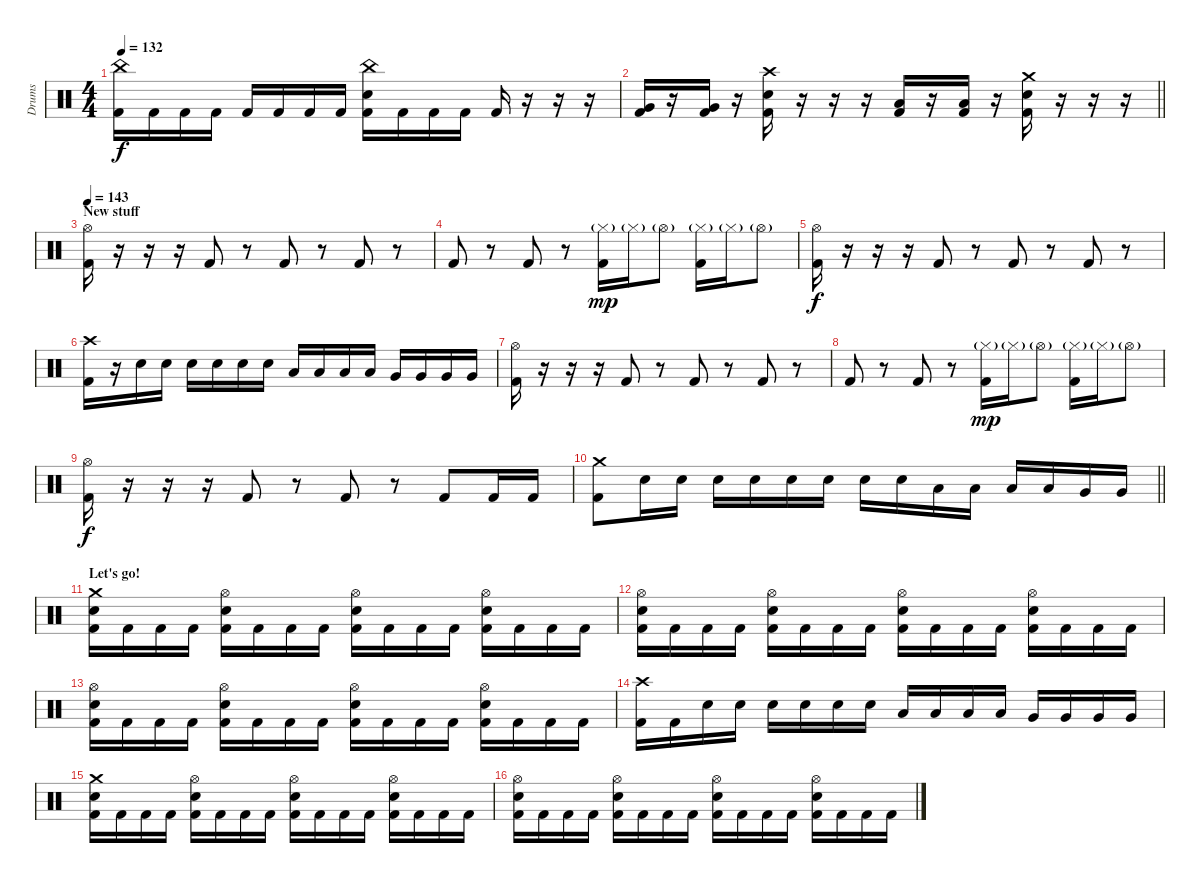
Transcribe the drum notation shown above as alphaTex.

\track ("Drums" "Drums") {instrument percussion}
\staff {score}
\articulation defaults
\ts (4 4)
\tempo 132
\clef neutral
\ks c
("China (hit)" "Kick (hit) 2").16{dy f} "Kick (hit) 2".16 "Kick (hit) 2".16 "Kick (hit) 2".16 "Kick (hit) 2".16 "Kick (hit) 2".16 "Kick (hit) 2".16 "Kick (hit) 2".16 ("China (hit)" "Electric Snare (hit)" "Kick (hit) 2").16 "Kick (hit) 2".16 "Kick (hit) 2".16 "Kick (hit) 2".16 "Kick (hit) 2".16 r.16 r.16 r.16 |
\barLineRight lightlight
("Very Low Tom (hit)" "Kick (hit) 2").16 r.16 ("Very Low Tom (hit)" "Kick (hit) 2").16 r.16 ("Crash high (hit)" "Electric Snare (hit)" "Kick (hit) 2").16 r.16 r.16 r.16 ("Low Floor Tom (hit)" "Kick (hit) 2").16 r.16 ("Low Floor Tom (hit)" "Kick (hit) 2").16 r.16 ("Crash medium (hit)" "Electric Snare (hit)" "Kick (hit) 2").16 r.16 r.16 r.16 |
\section ("" "New stuff")
\tempo 143
("Hi-Hat (open)" "Kick (hit) 2").16 r.16 r.16 r.16 "Kick (hit) 2".8 r.8 "Kick (hit) 2".8 r.8 "Kick (hit) 2".8 r.8 |
"Kick (hit) 2".8 r.8 "Kick (hit) 2".8 r.8 ("Hi-Hat (closed)"{g} "Kick (hit) 2").16{dy mp} "Hi-Hat (closed)"{g}.16 "Hi-Hat (open)"{g}.8 ("Hi-Hat (closed)"{g} "Kick (hit) 2").16 "Hi-Hat (closed)"{g}.16 "Hi-Hat (open)"{g}.8 |
("Hi-Hat (open)" "Kick (hit) 2").16{dy f} r.16 r.16 r.16 "Kick (hit) 2".8 r.8 "Kick (hit) 2".8 r.8 "Kick (hit) 2".8 r.8 |
("Crash high (hit)" "Kick (hit) 2").16 r.16 "Electric Snare (hit)".16 "Electric Snare (hit)".16 "Electric Snare (hit)".16 "Electric Snare (hit)".16 "Electric Snare (hit)".16 "Electric Snare (hit)".16 "Low Tom (hit)".16 "Low Tom (hit)".16 "Low Tom (hit)".16 "Low Tom (hit)".16 "Very Low Tom (hit)".16 "Very Low Tom (hit)".16 "Very Low Tom (hit)".16 "Very Low Tom (hit)".16 |
("Hi-Hat (open)" "Kick (hit) 2").16 r.16 r.16 r.16 "Kick (hit) 2".8 r.8 "Kick (hit) 2".8 r.8 "Kick (hit) 2".8 r.8 |
"Kick (hit) 2".8 r.8 "Kick (hit) 2".8 r.8 ("Hi-Hat (closed)"{g} "Kick (hit) 2").16{dy mp} "Hi-Hat (closed)"{g}.16 "Hi-Hat (open)"{g}.8 ("Hi-Hat (closed)"{g} "Kick (hit) 2").16 "Hi-Hat (closed)"{g}.16 "Hi-Hat (open)"{g}.8 |
("Hi-Hat (open)" "Kick (hit) 2").16{dy f} r.16 r.16 r.16 "Kick (hit) 2".8 r.8 "Kick (hit) 2".8 r.8 "Kick (hit) 2".8 "Kick (hit) 2".16 "Kick (hit) 2".16 |
\barLineRight lightlight
("Crash medium (hit)" "Kick (hit) 2").8 "Electric Snare (hit)".16 "Electric Snare (hit)".16 "Electric Snare (hit)".16 "Electric Snare (hit)".16 "Electric Snare (hit)".16 "Electric Snare (hit)".16 "Electric Snare (hit)".16 "Electric Snare (hit)".16 "Low Tom (hit)".16 "Low Tom (hit)".16 "Low Tom (hit)".16 "Low Tom (hit)".16 "Very Low Tom (hit)".16 "Very Low Tom (hit)".16 |
\section ("" "Let's go!")
("Crash medium (hit)" "Electric Snare (hit)" "Kick (hit) 2").16 "Kick (hit) 2".16 "Kick (hit) 2".16 "Kick (hit) 2".16 ("Hi-Hat (open)" "Electric Snare (hit)" "Kick (hit) 2").16 "Kick (hit) 2".16 "Kick (hit) 2".16 "Kick (hit) 2".16 ("Hi-Hat (open)" "Electric Snare (hit)" "Kick (hit) 2").16 "Kick (hit) 2".16 "Kick (hit) 2".16 "Kick (hit) 2".16 ("Hi-Hat (open)" "Electric Snare (hit)" "Kick (hit) 2").16 "Kick (hit) 2".16 "Kick (hit) 2".16 "Kick (hit) 2".16 |
("Hi-Hat (open)" "Electric Snare (hit)" "Kick (hit) 2").16 "Kick (hit) 2".16 "Kick (hit) 2".16 "Kick (hit) 2".16 ("Hi-Hat (open)" "Electric Snare (hit)" "Kick (hit) 2").16 "Kick (hit) 2".16 "Kick (hit) 2".16 "Kick (hit) 2".16 ("Hi-Hat (open)" "Electric Snare (hit)" "Kick (hit) 2").16 "Kick (hit) 2".16 "Kick (hit) 2".16 "Kick (hit) 2".16 ("Hi-Hat (open)" "Electric Snare (hit)" "Kick (hit) 2").16 "Kick (hit) 2".16 "Kick (hit) 2".16 "Kick (hit) 2".16 |
("Hi-Hat (open)" "Electric Snare (hit)" "Kick (hit) 2").16 "Kick (hit) 2".16 "Kick (hit) 2".16 "Kick (hit) 2".16 ("Hi-Hat (open)" "Electric Snare (hit)" "Kick (hit) 2").16 "Kick (hit) 2".16 "Kick (hit) 2".16 "Kick (hit) 2".16 ("Hi-Hat (open)" "Electric Snare (hit)" "Kick (hit) 2").16 "Kick (hit) 2".16 "Kick (hit) 2".16 "Kick (hit) 2".16 ("Hi-Hat (open)" "Electric Snare (hit)" "Kick (hit) 2").16 "Kick (hit) 2".16 "Kick (hit) 2".16 "Kick (hit) 2".16 |
("Crash high (hit)" "Kick (hit) 2").16 "Kick (hit) 2".16 "Electric Snare (hit)".16 "Electric Snare (hit)".16 "Electric Snare (hit)".16 "Electric Snare (hit)".16 "Electric Snare (hit)".16 "Electric Snare (hit)".16 "Low Tom (hit)".16 "Low Tom (hit)".16 "Low Tom (hit)".16 "Low Tom (hit)".16 "Very Low Tom (hit)".16 "Very Low Tom (hit)".16 "Very Low Tom (hit)".16 "Very Low Tom (hit)".16 |
("Crash medium (hit)" "Electric Snare (hit)" "Kick (hit) 2").16 "Kick (hit) 2".16 "Kick (hit) 2".16 "Kick (hit) 2".16 ("Hi-Hat (open)" "Electric Snare (hit)" "Kick (hit) 2").16 "Kick (hit) 2".16 "Kick (hit) 2".16 "Kick (hit) 2".16 ("Hi-Hat (open)" "Electric Snare (hit)" "Kick (hit) 2").16 "Kick (hit) 2".16 "Kick (hit) 2".16 "Kick (hit) 2".16 ("Hi-Hat (open)" "Electric Snare (hit)" "Kick (hit) 2").16 "Kick (hit) 2".16 "Kick (hit) 2".16 "Kick (hit) 2".16 |
("Hi-Hat (open)" "Electric Snare (hit)" "Kick (hit) 2").16 "Kick (hit) 2".16 "Kick (hit) 2".16 "Kick (hit) 2".16 ("Hi-Hat (open)" "Electric Snare (hit)" "Kick (hit) 2").16 "Kick (hit) 2".16 "Kick (hit) 2".16 "Kick (hit) 2".16 ("Hi-Hat (open)" "Electric Snare (hit)" "Kick (hit) 2").16 "Kick (hit) 2".16 "Kick (hit) 2".16 "Kick (hit) 2".16 ("Hi-Hat (open)" "Electric Snare (hit)" "Kick (hit) 2").16 "Kick (hit) 2".16 "Kick (hit) 2".16 "Kick (hit) 2".16
